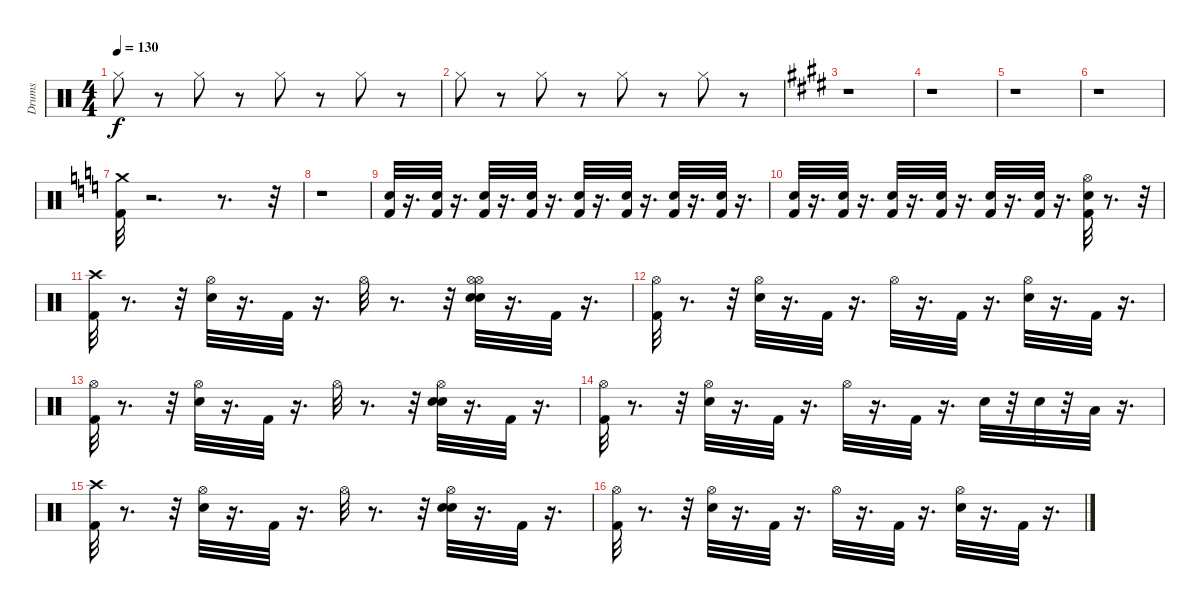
\track ("Drums" "Drums") {instrument percussion}
\staff {score}
\articulation defaults
\ts (4 4)
\tempo 130
\clef neutral
\ks c "Hi-Hat (closed)".8{dy f}
r.8 "Hi-Hat (closed)".8 r.8 "Hi-Hat (closed)".8 r.8 "Hi-Hat (closed)".8 r.8 |
"Hi-Hat (closed)".8 r.8 "Hi-Hat (closed)".8 r.8 "Hi-Hat (closed)".8 r.8 "Hi-Hat (closed)".8 r.8 |
\ks e
r.1 |
r.1 |
r.1 |
r.1 |
\ks c
("Kick (hit) 2" "Crash medium (hit)").32 r.2{d} r.8{d} r.32 |
r.1 |
("Kick (hit) 2" "Snare (hit) 2").32 r.16{d} ("Kick (hit) 2" "Snare (hit) 2").32 r.16{d} ("Kick (hit) 2" "Snare (hit) 2").32 r.16{d} ("Snare (hit) 2" "Kick (hit) 2").32 r.16{d} ("Kick (hit) 2" "Snare (hit) 2").32 r.16{d} ("Kick (hit) 2" "Snare (hit) 2").32 r.16{d} ("Kick (hit) 2" "Snare (hit) 2").32 r.16{d} ("Kick (hit) 2" "Snare (hit) 2").32 r.16{d} |
("Kick (hit) 2" "Snare (hit) 2").32 r.16{d} ("Kick (hit) 2" "Snare (hit) 2").32 r.16{d} ("Kick (hit) 2" "Snare (hit) 2").32 r.16{d} ("Snare (hit) 2" "Kick (hit) 2").32 r.16{d} ("Kick (hit) 2" "Snare (hit) 2").32 r.16{d} ("Kick (hit) 2" "Snare (hit) 2").32 r.16{d} ("Kick (hit) 2" "Snare (hit) 2" "Hi-Hat (open)").32 r.8{d} r.32 |
("Kick (hit) 2" "Crash high (hit)").32 r.8{d} r.32 ("Snare (hit) 2" "Hi-Hat (open)").32 r.16{d} "Kick (hit) 2".32 r.16{d} "Hi-Hat (open)".32 r.8{d} r.32 ("Snare (hit) 2" "Hi-Hat (open)" "Snare (hit) 2" "Hi-Hat (open)").32 r.16{d} "Kick (hit) 2".32 r.16{d} |
("Kick (hit) 2" "Hi-Hat (open)").32 r.8{d} r.32 ("Snare (hit) 2" "Hi-Hat (open)").32 r.16{d} "Kick (hit) 2".32 r.16{d} "Hi-Hat (open)".32 r.16{d} "Kick (hit) 2".32 r.16{d} ("Snare (hit) 2" "Hi-Hat (open)").32 r.16{d} "Kick (hit) 2".32 r.16{d} |
("Hi-Hat (open)" "Kick (hit) 2").32 r.8{d} r.32 ("Snare (hit) 2" "Hi-Hat (open)").32 r.16{d} "Kick (hit) 2".32 r.16{d} "Hi-Hat (open)".32 r.8{d} r.32 ("Snare (hit) 2" "Hi-Hat (open)" "Snare (hit) 2").32 r.16{d} "Kick (hit) 2".32 r.16{d} |
("Kick (hit) 2" "Hi-Hat (open)").32 r.8{d} r.32 ("Snare (hit) 2" "Hi-Hat (open)").32 r.16{d} "Kick (hit) 2".32 r.16{d} "Hi-Hat (open)".32 r.16{d} "Kick (hit) 2".32 r.16{d} "Snare (hit) 2".32 r.32 "Snare (hit) 2".32 r.32 "Low Floor Tom (hit)".32 r.16{d} |
("Kick (hit) 2" "Crash high (hit)").32 r.8{d} r.32 ("Snare (hit) 2" "Hi-Hat (open)").32 r.16{d} "Kick (hit) 2".32 r.16{d} "Hi-Hat (open)".32 r.8{d} r.32 ("Snare (hit) 2" "Hi-Hat (open)" "Snare (hit) 2").32 r.16{d} "Kick (hit) 2".32 r.16{d} |
("Kick (hit) 2" "Hi-Hat (open)").32 r.8{d} r.32 ("Snare (hit) 2" "Hi-Hat (open)").32 r.16{d} "Kick (hit) 2".32 r.16{d} "Hi-Hat (open)".32 r.16{d} "Kick (hit) 2".32 r.16{d} ("Hi-Hat (open)" "Snare (hit) 2").32 r.16{d} "Kick (hit) 2".32 r.16{d}
